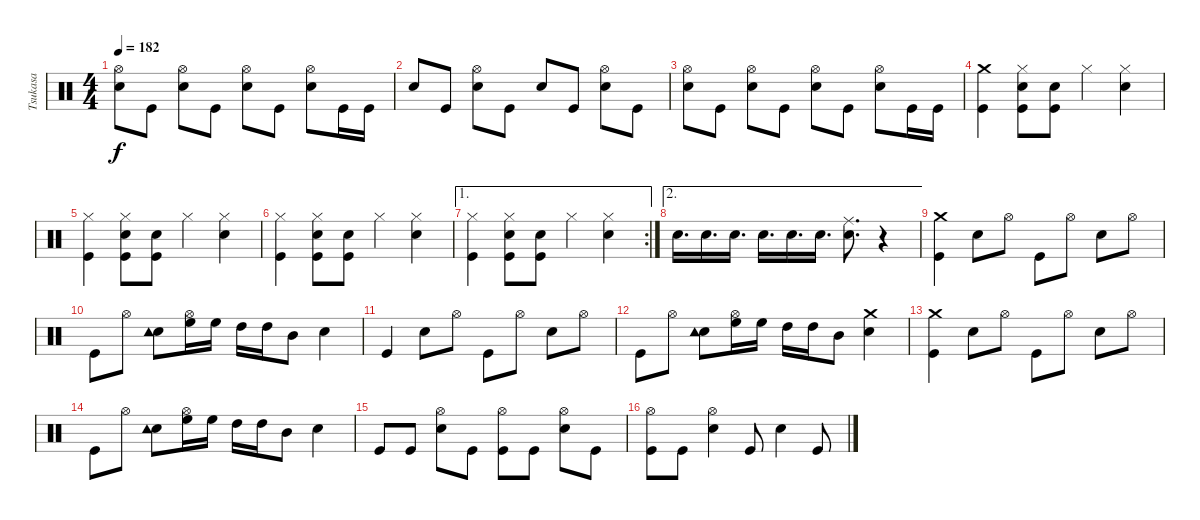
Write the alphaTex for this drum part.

\track ("Tsukasa" "Tsukasa") {instrument percussion}
\staff {score}
\articulation defaults
\ts (4 4)
\tempo 182
\clef neutral
\ks c
("Electric Snare (hit)" "Hi-Hat (open)").8{dy f} "Kick (hit)".8 ("Electric Snare (hit)" "Hi-Hat (open)").8 "Kick (hit)".8 ("Electric Snare (hit)" "Hi-Hat (open)").8 "Kick (hit)".8 ("Electric Snare (hit)" "Hi-Hat (open)").8 "Kick (hit)".16 "Kick (hit)".16 |
"Electric Snare (hit)".8 "Kick (hit)".8 ("Electric Snare (hit)" "Hi-Hat (open)").8 "Kick (hit)".8 "Electric Snare (hit)".8 "Kick (hit)".8 ("Electric Snare (hit)" "Hi-Hat (open)").8 "Kick (hit)".8 |
("Electric Snare (hit)" "Hi-Hat (open)").8 "Kick (hit)".8 ("Electric Snare (hit)" "Hi-Hat (open)").8 "Kick (hit)".8 ("Electric Snare (hit)" "Hi-Hat (open)").8 "Kick (hit)".8 ("Electric Snare (hit)" "Hi-Hat (open)").8 "Kick (hit)".16 "Kick (hit)".16 |
("Kick (hit)" "Crash medium (hit)").4 ("Electric Snare (hit)" "Hi-Hat (closed)" "Kick (hit)").8 ("Electric Snare (hit)" "Kick (hit)").8 "Hi-Hat (closed)".4 ("Electric Snare (hit)" "Hi-Hat (closed)").4 |
("Kick (hit)" "Hi-Hat (closed)").4 ("Electric Snare (hit)" "Hi-Hat (closed)" "Kick (hit)").8 ("Electric Snare (hit)" "Kick (hit)").8 "Hi-Hat (closed)".4 ("Electric Snare (hit)" "Hi-Hat (closed)").4 |
("Kick (hit)" "Hi-Hat (closed)").4 ("Electric Snare (hit)" "Hi-Hat (closed)" "Kick (hit)").8 ("Electric Snare (hit)" "Kick (hit)").8 "Hi-Hat (closed)".4 ("Electric Snare (hit)" "Hi-Hat (closed)").4 |
\ae 1
\rc 2
("Kick (hit)" "Hi-Hat (closed)").4 ("Electric Snare (hit)" "Hi-Hat (closed)" "Kick (hit)").8 ("Electric Snare (hit)" "Kick (hit)").8 "Hi-Hat (closed)".4 ("Electric Snare (hit)" "Hi-Hat (closed)").4 |
\ae 2 "Electric Snare (hit)".16{d} "Electric Snare (hit)".16{d} "Electric Snare (hit)".16{d} "Electric Snare (hit)".16{d} "Electric Snare (hit)".16{d} "Electric Snare (hit)".16{d}
("Electric Snare (hit)" "Ride (middle)").8{d} r.4 |
("Kick (hit)" "Crash medium (hit)").4 "Electric Snare (hit)".8 "Hi-Hat (open)".8 "Kick (hit)".8 "Hi-Hat (open)".8 "Electric Snare (hit)".8 "Hi-Hat (open)".8 |
"Kick (hit)".8 "Hi-Hat (open)".8 ("Electric Snare (hit)" "Tambourine (hit)").8 ("High Floor Tom (hit)" "Hi-Hat (open)").16 "High Floor Tom (hit)".16 "High Tom (hit)".16 "High Tom (hit)".16 "Mid Tom (hit)".8 "Electric Snare (hit)".4 |
"Kick (hit)".4 "Electric Snare (hit)".8 "Hi-Hat (open)".8 "Kick (hit)".8 "Hi-Hat (open)".8 "Electric Snare (hit)".8 "Hi-Hat (open)".8 |
"Kick (hit)".8 "Hi-Hat (open)".8 ("Electric Snare (hit)" "Tambourine (hit)").8 ("High Floor Tom (hit)" "Hi-Hat (open)").16 "High Floor Tom (hit)".16 "High Tom (hit)".16 "High Tom (hit)".16 "Mid Tom (hit)".8 ("Electric Snare (hit)" "Crash medium (hit)").4 |
("Kick (hit)" "Crash medium (hit)").4 "Electric Snare (hit)".8 "Hi-Hat (open)".8 "Kick (hit)".8 "Hi-Hat (open)".8 "Electric Snare (hit)".8 "Hi-Hat (open)".8 |
"Kick (hit)".8 "Hi-Hat (open)".8 ("Electric Snare (hit)" "Tambourine (hit)").8 ("High Floor Tom (hit)" "Hi-Hat (open)").16 "High Floor Tom (hit)".16 "High Tom (hit)".16 "High Tom (hit)".16 "Mid Tom (hit)".8 "Electric Snare (hit)".4 |
"Kick (hit)".8 "Kick (hit)".8 ("Electric Snare (hit)" "Hi-Hat (open)").8 "Kick (hit)".8 ("Kick (hit)" "Hi-Hat (open)").8 "Kick (hit)".8 ("Electric Snare (hit)" "Hi-Hat (open)").8 "Kick (hit)".8 |
("Kick (hit)" "Hi-Hat (open)").8 "Kick (hit)".8 ("Electric Snare (hit)" "Hi-Hat (open)").4 "Kick (hit)".8 "Electric Snare (hit)".4 "Kick (hit)".8
